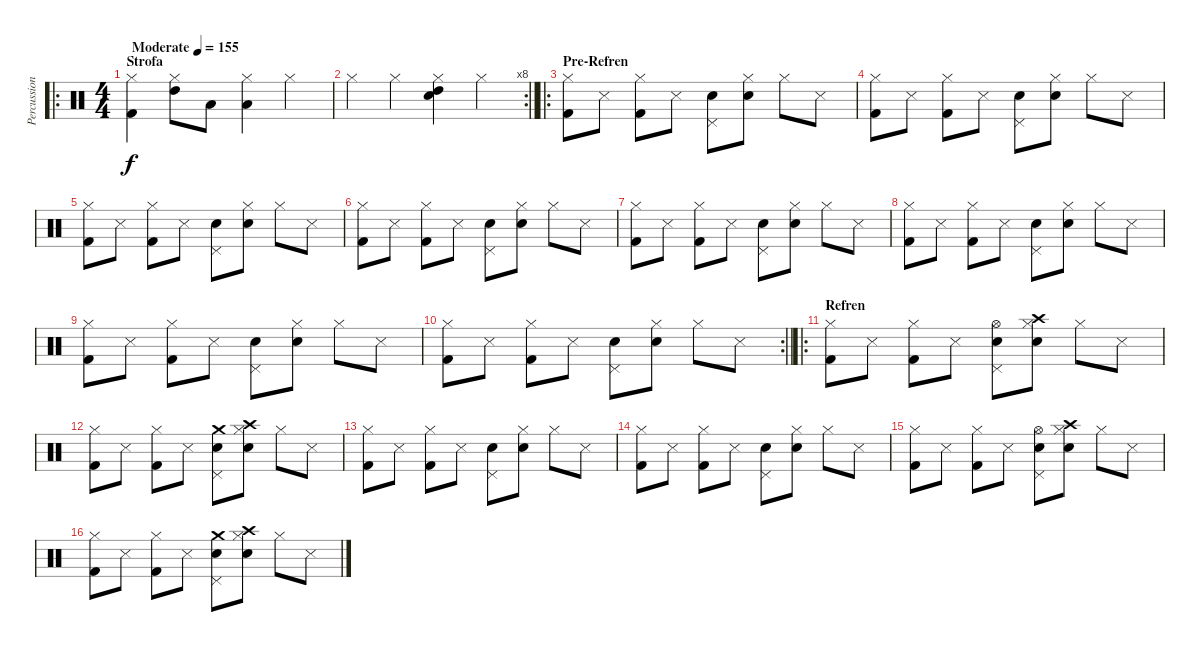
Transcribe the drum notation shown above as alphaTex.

\track ("Percussion" "Percussion") {instrument percussion}
\staff {score}
\articulation defaults
\ro
\ts (4 4)
\section ("" "Strofa")
\tempo (155 "Moderate")
\clef neutral
\ks c
("Hi-Hat (closed)" "Kick (hit) 2").4{dy f} ("High Tom (hit)" "Hi-Hat (closed)").8 "Low Tom (hit)".8 ("Hi-Hat (closed)" "Low Tom (hit)").4 "Hi-Hat (closed)".4 |
\rc 8
\barLineRight lightlight "Hi-Hat (closed)".4 "Hi-Hat (closed)".4
("High Tom (hit)" "Electric Snare (hit)" "Hi-Hat (closed)").4 "Hi-Hat (closed)".4 |
\ro
\section ("" "Pre-Refren")
("Hi-Hat (closed)" "Kick (hit) 2").8 "Snare (side stick) 3".8 ("Hi-Hat (closed)" "Kick (hit) 2").8 "Snare (side stick) 3".8 ("Pedal Hi-Hat (hit)" "Electric Snare (hit)").8 ("Hi-Hat (closed)" "Electric Snare (hit)").8 "Hi-Hat (closed)".8 "Snare (side stick) 3".8 |
("Hi-Hat (closed)" "Kick (hit) 2").8 "Snare (side stick) 3".8 ("Hi-Hat (closed)" "Kick (hit) 2").8 "Snare (side stick) 3".8 ("Pedal Hi-Hat (hit)" "Electric Snare (hit)").8 ("Hi-Hat (closed)" "Electric Snare (hit)").8 "Hi-Hat (closed)".8 "Snare (side stick) 3".8 |
("Hi-Hat (closed)" "Kick (hit) 2").8 "Snare (side stick) 3".8 ("Hi-Hat (closed)" "Kick (hit) 2").8 "Snare (side stick) 3".8 ("Pedal Hi-Hat (hit)" "Electric Snare (hit)").8 ("Hi-Hat (closed)" "Electric Snare (hit)").8 "Hi-Hat (closed)".8 "Snare (side stick) 3".8 |
("Hi-Hat (closed)" "Kick (hit) 2").8 "Snare (side stick) 3".8 ("Hi-Hat (closed)" "Kick (hit) 2").8 "Snare (side stick) 3".8 ("Pedal Hi-Hat (hit)" "Electric Snare (hit)").8 ("Hi-Hat (closed)" "Electric Snare (hit)").8 "Hi-Hat (closed)".8 "Snare (side stick) 3".8 |
("Hi-Hat (closed)" "Kick (hit) 2").8 "Snare (side stick) 3".8 ("Hi-Hat (closed)" "Kick (hit) 2").8 "Snare (side stick) 3".8 ("Pedal Hi-Hat (hit)" "Electric Snare (hit)").8 ("Hi-Hat (closed)" "Electric Snare (hit)").8 "Hi-Hat (closed)".8 "Snare (side stick) 3".8 |
("Hi-Hat (closed)" "Kick (hit) 2").8 "Snare (side stick) 3".8 ("Hi-Hat (closed)" "Kick (hit) 2").8 "Snare (side stick) 3".8 ("Pedal Hi-Hat (hit)" "Electric Snare (hit)").8 ("Hi-Hat (closed)" "Electric Snare (hit)").8 "Hi-Hat (closed)".8 "Snare (side stick) 3".8 |
("Hi-Hat (closed)" "Kick (hit) 2").8 "Snare (side stick) 3".8 ("Hi-Hat (closed)" "Kick (hit) 2").8 "Snare (side stick) 3".8 ("Pedal Hi-Hat (hit)" "Electric Snare (hit)").8 ("Hi-Hat (closed)" "Electric Snare (hit)").8 "Hi-Hat (closed)".8 "Snare (side stick) 3".8 |
\rc 2
\barLineRight lightlight
("Hi-Hat (closed)" "Kick (hit) 2").8 "Snare (side stick) 3".8 ("Hi-Hat (closed)" "Kick (hit) 2").8 "Snare (side stick) 3".8 ("Pedal Hi-Hat (hit)" "Electric Snare (hit)").8 ("Hi-Hat (closed)" "Electric Snare (hit)").8 "Hi-Hat (closed)".8 "Snare (side stick) 3".8 |
\ro
\section ("" "Refren")
("Hi-Hat (closed)" "Kick (hit) 2").8 "Snare (side stick) 3".8 ("Hi-Hat (closed)" "Kick (hit) 2").8 "Snare (side stick) 3".8 ("Hi-Hat (open)" "Pedal Hi-Hat (hit)" "Electric Snare (hit)").8 ("Crash high (hit)" "Hi-Hat (closed)" "Electric Snare (hit)").8 "Hi-Hat (closed)".8 "Snare (side stick) 3".8 |
("Hi-Hat (closed)" "Kick (hit) 2").8 "Snare (side stick) 3".8 ("Hi-Hat (closed)" "Kick (hit) 2").8 "Snare (side stick) 3".8 ("Crash medium (hit)" "Pedal Hi-Hat (hit)" "Electric Snare (hit)").8 ("Crash high (hit)" "Hi-Hat (closed)" "Electric Snare (hit)").8 "Hi-Hat (closed)".8 "Snare (side stick) 3".8 |
("Hi-Hat (closed)" "Kick (hit) 2").8 "Snare (side stick) 3".8 ("Hi-Hat (closed)" "Kick (hit) 2").8 "Snare (side stick) 3".8 ("Pedal Hi-Hat (hit)" "Electric Snare (hit)").8 ("Hi-Hat (closed)" "Electric Snare (hit)").8 "Hi-Hat (closed)".8 "Snare (side stick) 3".8 |
("Hi-Hat (closed)" "Kick (hit) 2").8 "Snare (side stick) 3".8 ("Hi-Hat (closed)" "Kick (hit) 2").8 "Snare (side stick) 3".8 ("Pedal Hi-Hat (hit)" "Electric Snare (hit)").8 ("Hi-Hat (closed)" "Electric Snare (hit)").8 "Hi-Hat (closed)".8 "Snare (side stick) 3".8 |
("Hi-Hat (closed)" "Kick (hit) 2").8 "Snare (side stick) 3".8 ("Hi-Hat (closed)" "Kick (hit) 2").8 "Snare (side stick) 3".8 ("Hi-Hat (open)" "Pedal Hi-Hat (hit)" "Electric Snare (hit)").8 ("Crash high (hit)" "Hi-Hat (closed)" "Electric Snare (hit)").8 "Hi-Hat (closed)".8 "Snare (side stick) 3".8 |
("Hi-Hat (closed)" "Kick (hit) 2").8 "Snare (side stick) 3".8 ("Hi-Hat (closed)" "Kick (hit) 2").8 "Snare (side stick) 3".8 ("Crash medium (hit)" "Pedal Hi-Hat (hit)" "Electric Snare (hit)").8 ("Crash high (hit)" "Hi-Hat (closed)" "Electric Snare (hit)").8 "Hi-Hat (closed)".8 "Snare (side stick) 3".8
